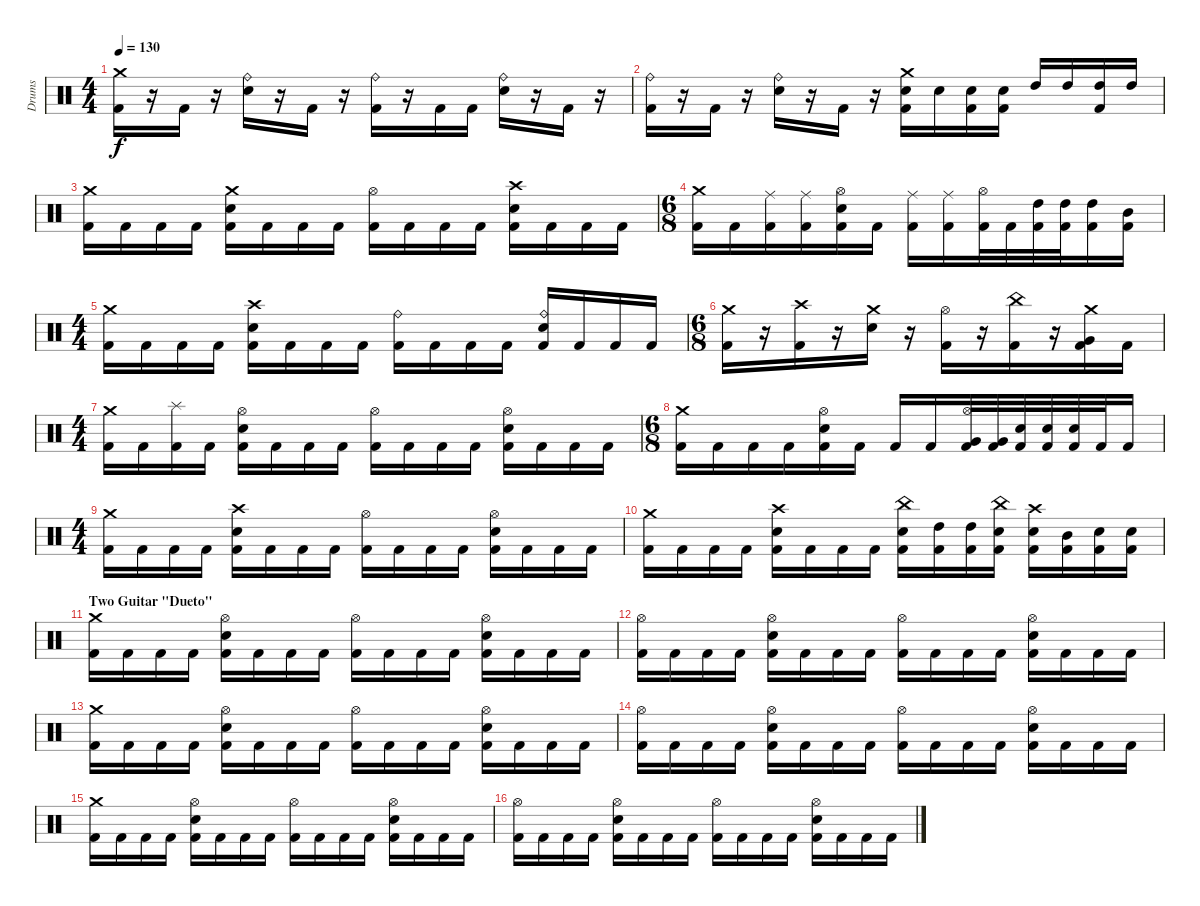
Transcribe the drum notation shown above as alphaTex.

\track ("Drums" "Drums") {instrument percussion}
\staff {score}
\articulation defaults
\ts (4 4)
\tempo 130
\clef neutral
\ks c
("Crash medium (hit)" "Kick (hit) 2").16{dy f} r.16 "Kick (hit) 2".16 r.16 ("Ride (bell)" "Electric Snare (hit)").16 r.16 "Kick (hit) 2".16 r.16 ("Ride (bell)" "Kick (hit) 2").16 r.16 "Kick (hit) 2".16 "Kick (hit) 2".16 ("Ride (bell)" "Electric Snare (hit)").16 r.16 "Kick (hit) 2".16 r.16 |
("Ride (bell)" "Kick (hit) 2").16 r.16 "Kick (hit) 2".16 r.16 ("Ride (bell)" "Electric Snare (hit)").16 r.16 "Kick (hit) 2".16 r.16 ("Crash medium (hit)" "Electric Snare (hit)" "Kick (hit) 2").16 "Electric Snare (hit)".16 ("Electric Snare (hit)" "Kick (hit) 2").16 ("Electric Snare (hit)" "Kick (hit) 2").16 "High Tom (hit)".16 "High Tom (hit)".16 ("High Tom (hit)" "Kick (hit) 2").16 "High Tom (hit)".16 |
("Crash medium (hit)" "Kick (hit) 2").16 "Kick (hit) 2".16 "Kick (hit) 2".16 "Kick (hit) 2".16 ("Crash medium (hit)" "Electric Snare (hit)" "Kick (hit) 2").16 "Kick (hit) 2".16 "Kick (hit) 2".16 "Kick (hit) 2".16 ("Hi-Hat (open)" "Kick (hit) 2").16 "Kick (hit) 2".16 "Kick (hit) 2".16 "Kick (hit) 2".16 ("Crash high (hit)" "Electric Snare (hit)" "Kick (hit) 2").16 "Kick (hit) 2".16 "Kick (hit) 2".16 "Kick (hit) 2".16 |
\ts (6 8)
("Crash medium (hit)" "Kick (hit) 2").16 "Kick (hit) 2".16 ("Ride (middle)" "Kick (hit) 2").16 ("Ride (middle)" "Kick (hit) 2").16 ("Hi-Hat (open)" "Electric Snare (hit)" "Kick (hit) 2").16 "Kick (hit) 2".16 ("Ride (middle)" "Kick (hit) 2").16 ("Ride (middle)" "Kick (hit) 2").16 ("Hi-Hat (open)" "Kick (hit) 2").32 "Kick (hit) 2".32 ("High Tom (hit)" "Kick (hit) 2").32 ("High Tom (hit)" "Kick (hit) 2").32 ("High Tom (hit)" "Kick (hit) 2").16 ("Mid Tom (hit)" "Kick (hit) 2").16 |
\ts (4 4)
("Crash medium (hit)" "Kick (hit) 2").16 "Kick (hit) 2".16 "Kick (hit) 2".16 "Kick (hit) 2".16 ("Crash high (hit)" "Electric Snare (hit)" "Kick (hit) 2").16 "Kick (hit) 2".16 "Kick (hit) 2".16 "Kick (hit) 2".16 ("Ride (bell)" "Kick (hit) 2").16 "Kick (hit) 2".16 "Kick (hit) 2".16 "Kick (hit) 2".16 ("Ride (bell)" "Electric Snare (hit)" "Kick (hit) 2").16 "Kick (hit) 2".16 "Kick (hit) 2".16 "Kick (hit) 2".16 |
\ts (6 8)
("Crash medium (hit)" "Kick (hit) 2").16 r.16 ("Crash high (hit)" "Kick (hit) 2").16 r.16 ("Crash medium (hit)" "Electric Snare (hit)").16 r.16 ("Hi-Hat (open)" "Kick (hit) 2").16 r.16 ("China (hit)" "Kick (hit) 2").16 r.16 ("Crash medium (hit)" "Very Low Tom (hit)" "Kick (hit) 2").16 "Kick (hit) 2".16 |
\ts (4 4)
("Crash medium (hit)" "Kick (hit) 2").16 "Kick (hit) 2".16 ("Splash (hit)" "Kick (hit) 2").16 "Kick (hit) 2".16 ("Hi-Hat (open)" "Electric Snare (hit)" "Kick (hit) 2").16 "Kick (hit) 2".16 "Kick (hit) 2".16 "Kick (hit) 2".16 ("Hi-Hat (open)" "Kick (hit) 2").16 "Kick (hit) 2".16 "Kick (hit) 2".16 "Kick (hit) 2".16 ("Hi-Hat (open)" "Electric Snare (hit)" "Kick (hit) 2").16 "Kick (hit) 2".16 "Kick (hit) 2".16 "Kick (hit) 2".16 |
\ts (6 8)
("Crash medium (hit)" "Kick (hit) 2").16 "Kick (hit) 2".16 "Kick (hit) 2".16 "Kick (hit) 2".16 ("Hi-Hat (open)" "Electric Snare (hit)" "Kick (hit) 2").16 "Kick (hit) 2".16 "Kick (hit) 2".16 "Kick (hit) 2".16 ("Hi-Hat (open)" "Very Low Tom (hit)" "Kick (hit) 2").32 ("Very Low Tom (hit)" "Kick (hit) 2").32 ("Electric Snare (hit)" "Kick (hit) 2").32 ("Electric Snare (hit)" "Kick (hit) 2").32 ("Electric Snare (hit)" "Kick (hit) 2").32 "Kick (hit) 2".32 "Kick (hit) 2".16 |
\ts (4 4)
("Crash medium (hit)" "Kick (hit) 2").16 "Kick (hit) 2".16 "Kick (hit) 2".16 "Kick (hit) 2".16 ("Crash high (hit)" "Electric Snare (hit)" "Kick (hit) 2").16 "Kick (hit) 2".16 "Kick (hit) 2".16 "Kick (hit) 2".16 ("Hi-Hat (open)" "Kick (hit) 2").16 "Kick (hit) 2".16 "Kick (hit) 2".16 "Kick (hit) 2".16 ("Hi-Hat (open)" "Electric Snare (hit)" "Kick (hit) 2").16 "Kick (hit) 2".16 "Kick (hit) 2".16 "Kick (hit) 2".16 |
("Crash medium (hit)" "Kick (hit) 2").16 "Kick (hit) 2".16 "Kick (hit) 2".16 "Kick (hit) 2".16 ("Crash high (hit)" "Electric Snare (hit)" "Kick (hit) 2").16 "Kick (hit) 2".16 "Kick (hit) 2".16 "Kick (hit) 2".16 ("China (hit)" "Electric Snare (hit)" "Kick (hit) 2").16 ("High Tom (hit)" "Kick (hit) 2").16 ("High Tom (hit)" "Kick (hit) 2").16 ("China (hit)" "Electric Snare (hit)" "Kick (hit) 2").16 ("Crash high (hit)" "Electric Snare (hit)" "Kick (hit) 2").16 ("Mid Tom (hit)" "Kick (hit) 2").16 ("Electric Snare (hit)" "Kick (hit) 2").16 ("Electric Snare (hit)" "Kick (hit) 2").16 |
\section ("" "Two Guitar \"Dueto\"")
("Crash medium (hit)" "Kick (hit) 2").16 "Kick (hit) 2".16 "Kick (hit) 2".16 "Kick (hit) 2".16 ("Hi-Hat (open)" "Electric Snare (hit)" "Kick (hit) 2").16 "Kick (hit) 2".16 "Kick (hit) 2".16 "Kick (hit) 2".16 ("Hi-Hat (open)" "Kick (hit) 2").16 "Kick (hit) 2".16 "Kick (hit) 2".16 "Kick (hit) 2".16 ("Hi-Hat (open)" "Electric Snare (hit)" "Kick (hit) 2").16 "Kick (hit) 2".16 "Kick (hit) 2".16 "Kick (hit) 2".16 |
("Hi-Hat (open)" "Kick (hit) 2").16 "Kick (hit) 2".16 "Kick (hit) 2".16 "Kick (hit) 2".16 ("Hi-Hat (open)" "Electric Snare (hit)" "Kick (hit) 2").16 "Kick (hit) 2".16 "Kick (hit) 2".16 "Kick (hit) 2".16 ("Hi-Hat (open)" "Kick (hit) 2").16 "Kick (hit) 2".16 "Kick (hit) 2".16 "Kick (hit) 2".16 ("Hi-Hat (open)" "Electric Snare (hit)" "Kick (hit) 2").16 "Kick (hit) 2".16 "Kick (hit) 2".16 "Kick (hit) 2".16 |
("Crash medium (hit)" "Kick (hit) 2").16 "Kick (hit) 2".16 "Kick (hit) 2".16 "Kick (hit) 2".16 ("Hi-Hat (open)" "Electric Snare (hit)" "Kick (hit) 2").16 "Kick (hit) 2".16 "Kick (hit) 2".16 "Kick (hit) 2".16 ("Hi-Hat (open)" "Kick (hit) 2").16 "Kick (hit) 2".16 "Kick (hit) 2".16 "Kick (hit) 2".16 ("Hi-Hat (open)" "Electric Snare (hit)" "Kick (hit) 2").16 "Kick (hit) 2".16 "Kick (hit) 2".16 "Kick (hit) 2".16 |
("Hi-Hat (open)" "Kick (hit) 2").16 "Kick (hit) 2".16 "Kick (hit) 2".16 "Kick (hit) 2".16 ("Hi-Hat (open)" "Electric Snare (hit)" "Kick (hit) 2").16 "Kick (hit) 2".16 "Kick (hit) 2".16 "Kick (hit) 2".16 ("Hi-Hat (open)" "Kick (hit) 2").16 "Kick (hit) 2".16 "Kick (hit) 2".16 "Kick (hit) 2".16 ("Hi-Hat (open)" "Electric Snare (hit)" "Kick (hit) 2").16 "Kick (hit) 2".16 "Kick (hit) 2".16 "Kick (hit) 2".16 |
("Crash medium (hit)" "Kick (hit) 2").16 "Kick (hit) 2".16 "Kick (hit) 2".16 "Kick (hit) 2".16 ("Hi-Hat (open)" "Electric Snare (hit)" "Kick (hit) 2").16 "Kick (hit) 2".16 "Kick (hit) 2".16 "Kick (hit) 2".16 ("Hi-Hat (open)" "Kick (hit) 2").16 "Kick (hit) 2".16 "Kick (hit) 2".16 "Kick (hit) 2".16 ("Hi-Hat (open)" "Electric Snare (hit)" "Kick (hit) 2").16 "Kick (hit) 2".16 "Kick (hit) 2".16 "Kick (hit) 2".16 |
("Hi-Hat (open)" "Kick (hit) 2").16 "Kick (hit) 2".16 "Kick (hit) 2".16 "Kick (hit) 2".16 ("Hi-Hat (open)" "Electric Snare (hit)" "Kick (hit) 2").16 "Kick (hit) 2".16 "Kick (hit) 2".16 "Kick (hit) 2".16 ("Hi-Hat (open)" "Kick (hit) 2").16 "Kick (hit) 2".16 "Kick (hit) 2".16 "Kick (hit) 2".16 ("Hi-Hat (open)" "Electric Snare (hit)" "Kick (hit) 2").16 "Kick (hit) 2".16 "Kick (hit) 2".16 "Kick (hit) 2".16
